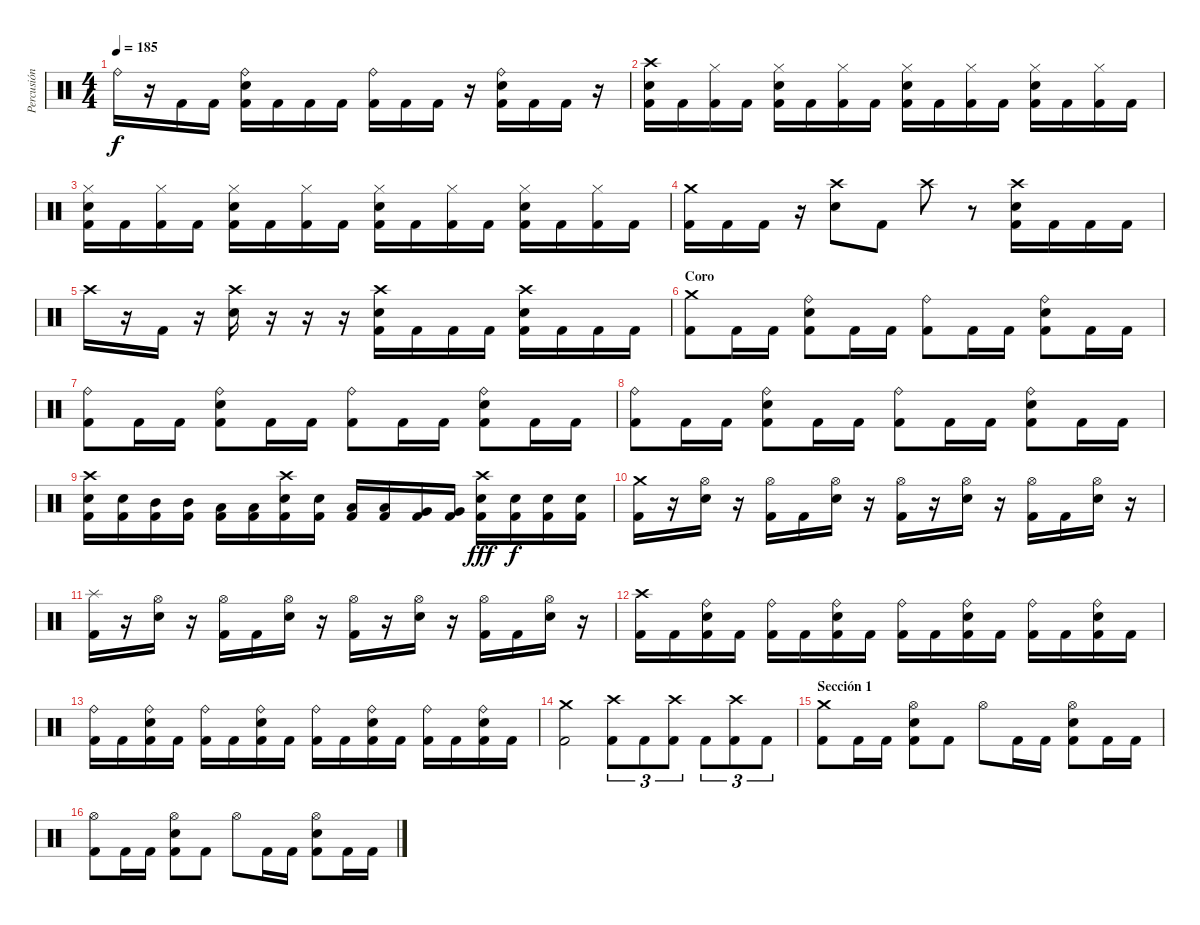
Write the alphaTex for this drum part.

\track ("Percusión" "Percusión") {instrument percussion}
\staff {score}
\articulation defaults
\ts (4 4)
\tempo 185
\clef neutral
\ks c "Ride (bell)".16{dy f}
r.16 "Kick (hit) 2".16 "Kick (hit) 2".16 ("Ride (bell)" "Snare (hit) 2" "Kick (hit) 2").16 "Kick (hit) 2".16 "Kick (hit) 2".16 "Kick (hit) 2".16 ("Ride (bell)" "Kick (hit) 2").16 "Kick (hit) 2".16 "Kick (hit) 2".16 r.16 ("Ride (bell)" "Snare (hit) 2" "Kick (hit) 2").16 "Kick (hit) 2".16 "Kick (hit) 2".16 r.16 |
("Crash high (hit)" "Snare (hit) 2" "Kick (hit) 2").16 "Kick (hit) 2".16 ("Hi-Hat (closed)" "Kick (hit) 2").16 "Kick (hit) 2".16 ("Hi-Hat (closed)" "Snare (hit) 2" "Kick (hit) 2").16 "Kick (hit) 2".16 ("Hi-Hat (closed)" "Kick (hit) 2").16 "Kick (hit) 2".16 ("Hi-Hat (closed)" "Snare (hit) 2" "Kick (hit) 2").16 "Kick (hit) 2".16 ("Hi-Hat (closed)" "Kick (hit) 2").16 "Kick (hit) 2".16 ("Hi-Hat (closed)" "Snare (hit) 2" "Kick (hit) 2").16 "Kick (hit) 2".16 ("Hi-Hat (closed)" "Kick (hit) 2").16 "Kick (hit) 2".16 |
("Hi-Hat (closed)" "Snare (hit) 2" "Kick (hit) 2").16 "Kick (hit) 2".16 ("Hi-Hat (closed)" "Kick (hit) 2").16 "Kick (hit) 2".16 ("Hi-Hat (closed)" "Snare (hit) 2" "Kick (hit) 2").16 "Kick (hit) 2".16 ("Hi-Hat (closed)" "Kick (hit) 2").16 "Kick (hit) 2".16 ("Hi-Hat (closed)" "Snare (hit) 2" "Kick (hit) 2").16 "Kick (hit) 2".16 ("Hi-Hat (closed)" "Kick (hit) 2").16 "Kick (hit) 2".16 ("Hi-Hat (closed)" "Snare (hit) 2" "Kick (hit) 2").16 "Kick (hit) 2".16 ("Hi-Hat (closed)" "Kick (hit) 2").16 "Kick (hit) 2".16 |
("Crash medium (hit)" "Kick (hit) 2").16 "Kick (hit) 2".16 "Kick (hit) 2".16 r.16 ("Crash high (hit)" "Snare (hit) 2").8 "Kick (hit) 2".8 "Crash high (hit)".8 r.8 ("Crash high (hit)" "Snare (hit) 2" "Kick (hit) 2").16 "Kick (hit) 2".16 "Kick (hit) 2".16 "Kick (hit) 2".16 |
"Crash high (hit)".16 r.16 "Kick (hit) 2".16 r.16 ("Crash high (hit)" "Snare (hit) 2").16 r.16 r.16 r.16 ("Crash high (hit)" "Snare (hit) 2" "Kick (hit) 2").16 "Kick (hit) 2".16 "Kick (hit) 2".16 "Kick (hit) 2".16 ("Crash high (hit)" "Snare (hit) 2" "Kick (hit) 2").16 "Kick (hit) 2".16 "Kick (hit) 2".16 "Kick (hit) 2".16 |
\section ("" "Coro")
("Crash medium (hit)" "Kick (hit) 2").8 "Kick (hit) 2".16 "Kick (hit) 2".16 ("Ride (bell)" "Snare (hit) 2" "Kick (hit) 2").8 "Kick (hit) 2".16 "Kick (hit) 2".16 ("Ride (bell)" "Kick (hit) 2").8 "Kick (hit) 2".16 "Kick (hit) 2".16 ("Ride (bell)" "Snare (hit) 2" "Kick (hit) 2").8 "Kick (hit) 2".16 "Kick (hit) 2".16 |
("Ride (bell)" "Kick (hit) 2").8 "Kick (hit) 2".16 "Kick (hit) 2".16 ("Ride (bell)" "Snare (hit) 2" "Kick (hit) 2").8 "Kick (hit) 2".16 "Kick (hit) 2".16 ("Ride (bell)" "Kick (hit) 2").8 "Kick (hit) 2".16 "Kick (hit) 2".16 ("Ride (bell)" "Snare (hit) 2" "Kick (hit) 2").8 "Kick (hit) 2".16 "Kick (hit) 2".16 |
("Ride (bell)" "Kick (hit) 2").8 "Kick (hit) 2".16 "Kick (hit) 2".16 ("Ride (bell)" "Snare (hit) 2" "Kick (hit) 2").8 "Kick (hit) 2".16 "Kick (hit) 2".16 ("Ride (bell)" "Kick (hit) 2").8 "Kick (hit) 2".16 "Kick (hit) 2".16 ("Ride (bell)" "Snare (hit) 2" "Kick (hit) 2").8 "Kick (hit) 2".16 "Kick (hit) 2".16 |
("Crash high (hit)" "Snare (hit) 2" "Kick (hit) 2").16 ("Snare (hit) 2" "Kick (hit) 2").16 ("Mid Tom (hit)" "Kick (hit) 2").16 ("Mid Tom (hit)" "Kick (hit) 2").16 ("Low Tom (hit)" "Kick (hit) 2").16 ("Low Tom (hit)" "Kick (hit) 2").16 ("Crash high (hit)" "Snare (hit) 2" "Kick (hit) 2").16 ("Snare (hit) 2" "Kick (hit) 2").16 ("Low Tom (hit)" "Kick (hit) 2").16 ("Low Tom (hit)" "Kick (hit) 2").16 ("Very Low Tom (hit)" "Kick (hit) 2").16 ("Very Low Tom (hit)" "Kick (hit) 2").16 ("Crash high (hit)" "Snare (hit) 2" "Kick (hit) 2").16{dy fff} ("Snare (hit) 2" "Kick (hit) 2").16{dy f} ("Snare (hit) 2" "Kick (hit) 2").16 ("Snare (hit) 2" "Kick (hit) 2").16 |
("Crash medium (hit)" "Kick (hit) 2").16 r.16 ("Hi-Hat (open)" "Snare (hit) 2").16 r.16 ("Hi-Hat (open)" "Kick (hit) 2").16 "Kick (hit) 2".16 ("Hi-Hat (open)" "Snare (hit) 2").16 r.16 ("Hi-Hat (open)" "Kick (hit) 2").16 r.16 ("Hi-Hat (open)" "Snare (hit) 2").16 r.16 ("Hi-Hat (open)" "Kick (hit) 2").16 "Kick (hit) 2".16 ("Hi-Hat (open)" "Snare (hit) 2").16 r.16 |
("Splash (hit)" "Kick (hit) 2").16 r.16 ("Hi-Hat (open)" "Snare (hit) 2").16 r.16 ("Hi-Hat (open)" "Kick (hit) 2").16 "Kick (hit) 2".16 ("Hi-Hat (open)" "Snare (hit) 2").16 r.16 ("Hi-Hat (open)" "Kick (hit) 2").16 r.16 ("Hi-Hat (open)" "Snare (hit) 2").16 r.16 ("Hi-Hat (open)" "Kick (hit) 2").16 "Kick (hit) 2".16 ("Hi-Hat (open)" "Snare (hit) 2").16 r.16 |
("Crash high (hit)" "Kick (hit) 2").16 "Kick (hit) 2".16 ("Ride (bell)" "Snare (hit) 2" "Kick (hit) 2").16 "Kick (hit) 2".16 ("Ride (bell)" "Kick (hit) 2").16 "Kick (hit) 2".16 ("Ride (bell)" "Snare (hit) 2" "Kick (hit) 2").16 "Kick (hit) 2".16 ("Ride (bell)" "Kick (hit) 2").16 "Kick (hit) 2".16 ("Ride (bell)" "Snare (hit) 2" "Kick (hit) 2").16 "Kick (hit) 2".16 ("Ride (bell)" "Kick (hit) 2").16 "Kick (hit) 2".16 ("Ride (bell)" "Snare (hit) 2" "Kick (hit) 2").16 "Kick (hit) 2".16 |
("Ride (bell)" "Kick (hit) 2").16 "Kick (hit) 2".16 ("Ride (bell)" "Snare (hit) 2" "Kick (hit) 2").16 "Kick (hit) 2".16 ("Ride (bell)" "Kick (hit) 2").16 "Kick (hit) 2".16 ("Ride (bell)" "Snare (hit) 2" "Kick (hit) 2").16 "Kick (hit) 2".16 ("Ride (bell)" "Kick (hit) 2").16 "Kick (hit) 2".16 ("Ride (bell)" "Snare (hit) 2" "Kick (hit) 2").16 "Kick (hit) 2".16 ("Ride (bell)" "Kick (hit) 2").16 "Kick (hit) 2".16 ("Ride (bell)" "Snare (hit) 2" "Kick (hit) 2").16 "Kick (hit) 2".16 |
\section ("" "")
("Crash medium (hit)" "Kick (hit) 2").2 ("Crash high (hit)" "Kick (hit) 2").8{tu (3 2)} "Kick (hit) 2".8{tu (3 2)} ("Crash high (hit)" "Kick (hit) 2").8{tu (3 2)} "Kick (hit) 2".8{tu (3 2)} ("Crash high (hit)" "Kick (hit) 2").8{tu (3 2)} "Kick (hit) 2".8{tu (3 2)} |
\section ("" "Sección 1")
("Crash medium (hit)" "Kick (hit) 2").8 "Kick (hit) 2".16 "Kick (hit) 2".16 ("Hi-Hat (open)" "Snare (hit) 2" "Kick (hit) 2").8 "Kick (hit) 2".8 "Hi-Hat (open)".8 "Kick (hit) 2".16 "Kick (hit) 2".16 ("Hi-Hat (open)" "Snare (hit) 2" "Kick (hit) 2").8 "Kick (hit) 2".16 "Kick (hit) 2".16 |
("Hi-Hat (open)" "Kick (hit) 2").8 "Kick (hit) 2".16 "Kick (hit) 2".16 ("Hi-Hat (open)" "Snare (hit) 2" "Kick (hit) 2").8 "Kick (hit) 2".8 "Hi-Hat (open)".8 "Kick (hit) 2".16 "Kick (hit) 2".16 ("Hi-Hat (open)" "Snare (hit) 2" "Kick (hit) 2").8 "Kick (hit) 2".16 "Kick (hit) 2".16
